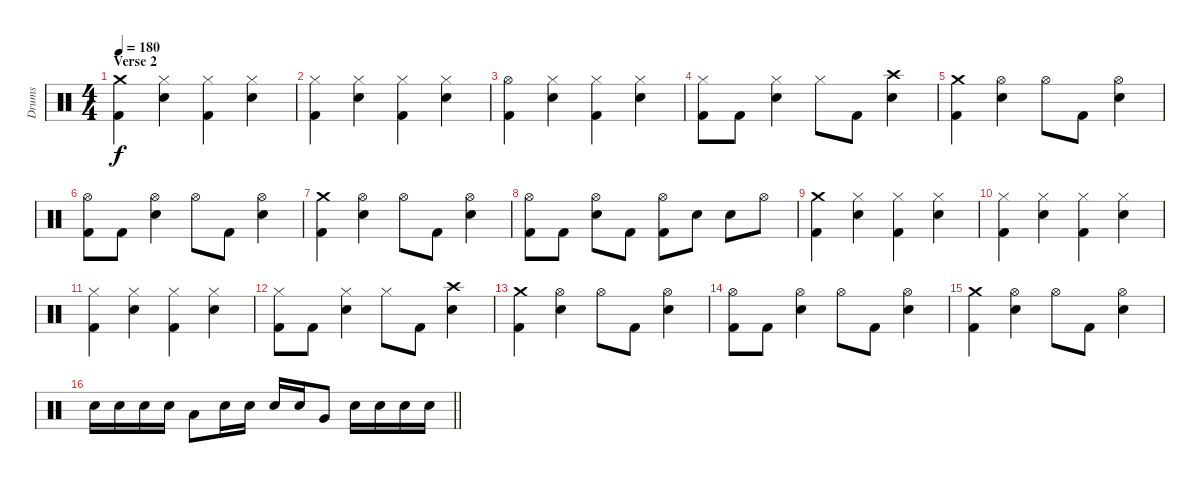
\track ("Drums" "Drums") {instrument percussion}
\staff {score}
\articulation defaults
\ts (4 4)
\section ("" "Verse 2")
\tempo 180
\clef neutral
\ks c
("Crash medium (hit)" "Kick (hit) 2").4{dy f} ("Hi-Hat (closed)" "Electric Snare (hit)").4 ("Hi-Hat (closed)" "Kick (hit) 2").4 ("Hi-Hat (closed)" "Electric Snare (hit)").4 |
("Hi-Hat (closed)" "Kick (hit) 2").4 ("Hi-Hat (closed)" "Electric Snare (hit)").4 ("Hi-Hat (closed)" "Kick (hit) 2").4 ("Hi-Hat (closed)" "Electric Snare (hit)").4 |
("Hi-Hat (open)" "Kick (hit) 2").4 ("Hi-Hat (closed)" "Electric Snare (hit)").4 ("Hi-Hat (closed)" "Kick (hit) 2").4 ("Hi-Hat (closed)" "Electric Snare (hit)").4 |
("Hi-Hat (closed)" "Kick (hit) 2").8 "Kick (hit) 2".8 ("Hi-Hat (closed)" "Electric Snare (hit)").4 "Hi-Hat (closed)".8 "Kick (hit) 2".8 ("Crash high (hit)" "Electric Snare (hit)").4 |
("Crash medium (hit)" "Kick (hit) 2").4 ("Hi-Hat (open)" "Electric Snare (hit)").4 "Hi-Hat (open)".8 "Kick (hit) 2".8 ("Hi-Hat (open)" "Electric Snare (hit)").4 |
("Hi-Hat (open)" "Kick (hit) 2").8 "Kick (hit) 2".8 ("Hi-Hat (open)" "Electric Snare (hit)").4 "Hi-Hat (open)".8 "Kick (hit) 2".8 ("Hi-Hat (open)" "Electric Snare (hit)").4 |
("Crash medium (hit)" "Kick (hit) 2").4 ("Hi-Hat (open)" "Electric Snare (hit)").4 "Hi-Hat (open)".8 "Kick (hit) 2".8 ("Hi-Hat (open)" "Electric Snare (hit)").4 |
("Hi-Hat (open)" "Kick (hit) 2").8 "Kick (hit) 2".8 ("Hi-Hat (open)" "Electric Snare (hit)").8 "Kick (hit) 2".8 ("Hi-Hat (open)" "Kick (hit) 2").8 "Electric Snare (hit)".8 "Electric Snare (hit)".8 "Hi-Hat (open)".8 |
("Crash medium (hit)" "Kick (hit) 2").4 ("Hi-Hat (closed)" "Electric Snare (hit)").4 ("Hi-Hat (closed)" "Kick (hit) 2").4 ("Hi-Hat (closed)" "Electric Snare (hit)").4 |
("Hi-Hat (closed)" "Kick (hit) 2").4 ("Hi-Hat (closed)" "Electric Snare (hit)").4 ("Hi-Hat (closed)" "Kick (hit) 2").4 ("Hi-Hat (closed)" "Electric Snare (hit)").4 |
("Hi-Hat (closed)" "Kick (hit) 2").4 ("Hi-Hat (closed)" "Electric Snare (hit)").4 ("Hi-Hat (closed)" "Kick (hit) 2").4 ("Hi-Hat (closed)" "Electric Snare (hit)").4 |
("Hi-Hat (closed)" "Kick (hit) 2").8 "Kick (hit) 2".8 ("Hi-Hat (closed)" "Electric Snare (hit)").4 "Hi-Hat (closed)".8 "Kick (hit) 2".8 ("Crash high (hit)" "Electric Snare (hit)").4 |
("Crash medium (hit)" "Kick (hit) 2").4 ("Hi-Hat (open)" "Electric Snare (hit)").4 "Hi-Hat (open)".8 "Kick (hit) 2".8 ("Hi-Hat (open)" "Electric Snare (hit)").4 |
("Hi-Hat (open)" "Kick (hit) 2").8 "Kick (hit) 2".8 ("Hi-Hat (open)" "Electric Snare (hit)").4 "Hi-Hat (open)".8 "Kick (hit) 2".8 ("Hi-Hat (open)" "Electric Snare (hit)").4 |
("Crash medium (hit)" "Kick (hit) 2").4 ("Hi-Hat (open)" "Electric Snare (hit)").4 "Hi-Hat (open)".8 "Kick (hit) 2".8 ("Hi-Hat (open)" "Electric Snare (hit)").4 |
\barLineRight lightlight "Electric Snare (hit)".16 "Electric Snare (hit)".16 "Electric Snare (hit)".16 "Electric Snare (hit)".16 "Low Tom (hit)".8 "Electric Snare (hit)".16 "Electric Snare (hit)".16 "Electric Snare (hit)".16 "Electric Snare (hit)".16 "Very Low Tom (hit)".8 "Electric Snare (hit)".16 "Electric Snare (hit)".16 "Electric Snare (hit)".16 "Electric Snare (hit)".16
